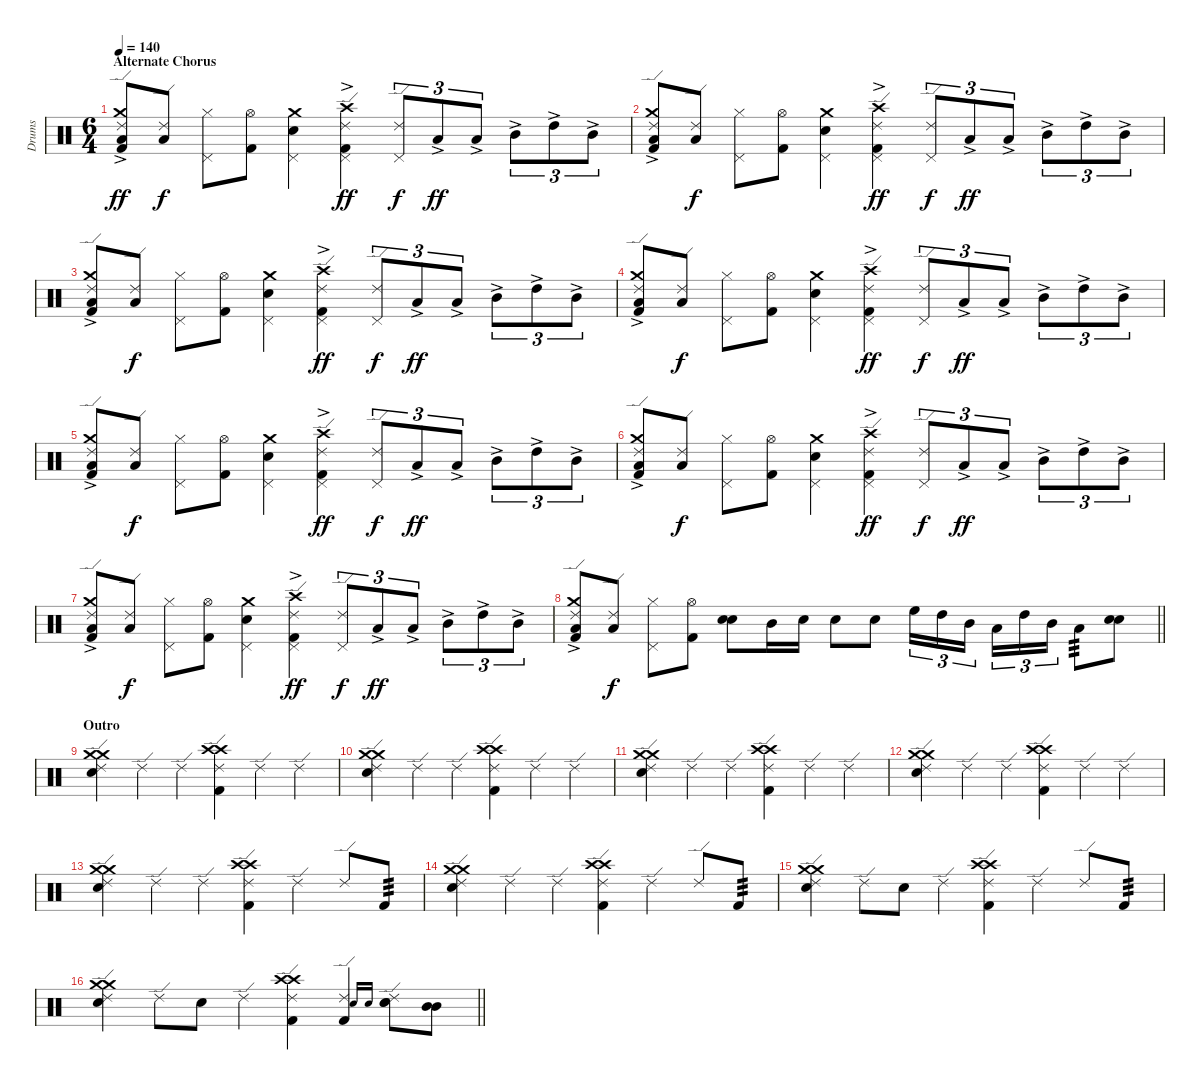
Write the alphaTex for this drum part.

\track ("Drums" "Drums") {instrument percussion}
\staff {score}
\articulation defaults
\ts (6 4)
\section ("" "Alternate Chorus")
\tempo 140
\clef neutral
\ks c
("Ride (edge) 2" "Crash medium (hit)"{ac} "Low Tom (hit)" "Kick (hit) 2").8{dy ff} ("Ride (edge) 2" "Low Tom (hit)").8{dy f} ("Hi-Hat (closed)" "Pedal Hi-Hat (hit)").8 ("Hi-Hat (open)" "Kick (hit) 2").8 ("Crash medium (hit)" "Electric Snare (hit)" "Pedal Hi-Hat (hit)").4 ("Ride (edge) 2" "Crash high (hit)"{ac} "Pedal Hi-Hat (hit)" "Kick (hit) 2").4{dy ff} ("Ride (edge) 2" "Pedal Hi-Hat (hit)").8{tu (3 2) dy f} "Low Tom (hit)"{ac}.8{tu (3 2) dy ff} "Low Tom (hit)"{ac}.8{tu (3 2)} "Mid Tom (hit)"{ac}.8{tu (3 2)} "High Tom (hit)"{ac}.8{tu (3 2)} "Mid Tom (hit)"{ac}.8{tu (3 2)} |
("Ride (edge) 2" "Crash medium (hit)"{ac} "Low Tom (hit)" "Kick (hit) 2").8 ("Ride (edge) 2" "Low Tom (hit)").8{dy f} ("Hi-Hat (closed)" "Pedal Hi-Hat (hit)").8 ("Hi-Hat (open)" "Kick (hit) 2").8 ("Crash medium (hit)" "Electric Snare (hit)" "Pedal Hi-Hat (hit)").4 ("Ride (edge) 2" "Crash high (hit)"{ac} "Pedal Hi-Hat (hit)" "Kick (hit) 2").4{dy ff} ("Ride (edge) 2" "Pedal Hi-Hat (hit)").8{tu (3 2) dy f} "Low Tom (hit)"{ac}.8{tu (3 2) dy ff} "Low Tom (hit)"{ac}.8{tu (3 2)} "Mid Tom (hit)"{ac}.8{tu (3 2)} "High Tom (hit)"{ac}.8{tu (3 2)} "Mid Tom (hit)"{ac}.8{tu (3 2)} |
("Ride (edge) 2" "Crash medium (hit)"{ac} "Low Tom (hit)" "Kick (hit) 2").8 ("Ride (edge) 2" "Low Tom (hit)").8{dy f} ("Hi-Hat (closed)" "Pedal Hi-Hat (hit)").8 ("Hi-Hat (open)" "Kick (hit) 2").8 ("Crash medium (hit)" "Electric Snare (hit)" "Pedal Hi-Hat (hit)").4 ("Ride (edge) 2" "Crash high (hit)"{ac} "Pedal Hi-Hat (hit)" "Kick (hit) 2").4{dy ff} ("Ride (edge) 2" "Pedal Hi-Hat (hit)").8{tu (3 2) dy f} "Low Tom (hit)"{ac}.8{tu (3 2) dy ff} "Low Tom (hit)"{ac}.8{tu (3 2)} "Mid Tom (hit)"{ac}.8{tu (3 2)} "High Tom (hit)"{ac}.8{tu (3 2)} "Mid Tom (hit)"{ac}.8{tu (3 2)} |
("Ride (edge) 2" "Crash medium (hit)"{ac} "Low Tom (hit)" "Kick (hit) 2").8 ("Ride (edge) 2" "Low Tom (hit)").8{dy f} ("Hi-Hat (closed)" "Pedal Hi-Hat (hit)").8 ("Hi-Hat (open)" "Kick (hit) 2").8 ("Crash medium (hit)" "Electric Snare (hit)" "Pedal Hi-Hat (hit)").4 ("Ride (edge) 2" "Crash high (hit)"{ac} "Pedal Hi-Hat (hit)" "Kick (hit) 2").4{dy ff} ("Ride (edge) 2" "Pedal Hi-Hat (hit)").8{tu (3 2) dy f} "Low Tom (hit)"{ac}.8{tu (3 2) dy ff} "Low Tom (hit)"{ac}.8{tu (3 2)} "Mid Tom (hit)"{ac}.8{tu (3 2)} "High Tom (hit)"{ac}.8{tu (3 2)} "Mid Tom (hit)"{ac}.8{tu (3 2)} |
("Ride (edge) 2" "Crash medium (hit)"{ac} "Low Tom (hit)" "Kick (hit) 2").8 ("Ride (edge) 2" "Low Tom (hit)").8{dy f} ("Hi-Hat (closed)" "Pedal Hi-Hat (hit)").8 ("Hi-Hat (open)" "Kick (hit) 2").8 ("Crash medium (hit)" "Electric Snare (hit)" "Pedal Hi-Hat (hit)").4 ("Ride (edge) 2" "Crash high (hit)"{ac} "Pedal Hi-Hat (hit)" "Kick (hit) 2").4{dy ff} ("Ride (edge) 2" "Pedal Hi-Hat (hit)").8{tu (3 2) dy f} "Low Tom (hit)"{ac}.8{tu (3 2) dy ff} "Low Tom (hit)"{ac}.8{tu (3 2)} "Mid Tom (hit)"{ac}.8{tu (3 2)} "High Tom (hit)"{ac}.8{tu (3 2)} "Mid Tom (hit)"{ac}.8{tu (3 2)} |
("Ride (edge) 2" "Crash medium (hit)"{ac} "Low Tom (hit)" "Kick (hit) 2").8 ("Ride (edge) 2" "Low Tom (hit)").8{dy f} ("Hi-Hat (closed)" "Pedal Hi-Hat (hit)").8 ("Hi-Hat (open)" "Kick (hit) 2").8 ("Crash medium (hit)" "Electric Snare (hit)" "Pedal Hi-Hat (hit)").4 ("Ride (edge) 2" "Crash high (hit)"{ac} "Pedal Hi-Hat (hit)" "Kick (hit) 2").4{dy ff} ("Ride (edge) 2" "Pedal Hi-Hat (hit)").8{tu (3 2) dy f} "Low Tom (hit)"{ac}.8{tu (3 2) dy ff} "Low Tom (hit)"{ac}.8{tu (3 2)} "Mid Tom (hit)"{ac}.8{tu (3 2)} "High Tom (hit)"{ac}.8{tu (3 2)} "Mid Tom (hit)"{ac}.8{tu (3 2)} |
("Ride (edge) 2" "Crash medium (hit)"{ac} "Low Tom (hit)" "Kick (hit) 2").8 ("Ride (edge) 2" "Low Tom (hit)").8{dy f} ("Hi-Hat (closed)" "Pedal Hi-Hat (hit)").8 ("Hi-Hat (open)" "Kick (hit) 2").8 ("Crash medium (hit)" "Electric Snare (hit)" "Pedal Hi-Hat (hit)").4 ("Ride (edge) 2" "Crash high (hit)"{ac} "Pedal Hi-Hat (hit)" "Kick (hit) 2").4{dy ff} ("Ride (edge) 2" "Pedal Hi-Hat (hit)").8{tu (3 2) dy f} "Low Tom (hit)"{ac}.8{tu (3 2) dy ff} "Low Tom (hit)"{ac}.8{tu (3 2)} "Mid Tom (hit)"{ac}.8{tu (3 2)} "High Tom (hit)"{ac}.8{tu (3 2)} "Mid Tom (hit)"{ac}.8{tu (3 2)} |
\barLineRight lightlight
("Ride (edge) 2" "Crash medium (hit)"{ac} "Low Tom (hit)" "Kick (hit) 2").8 ("Ride (edge) 2" "Low Tom (hit)").8{dy f} ("Hi-Hat (closed)" "Pedal Hi-Hat (hit)").8 ("Hi-Hat (open)" "Kick (hit) 2").8 ("Electric Snare (hit)" "Electric Snare (hit)").8 "Mid Tom (hit)".16 "Electric Snare (hit)".16 "Electric Snare (hit)".8 "Electric Snare (hit)".8 "High Floor Tom (hit)".16{tu (3 2)} "High Tom (hit)".16{tu (3 2)} "Mid Tom (hit)".16{tu (3 2) beam splitsecondary} "Low Tom (hit)".16{tu (3 2)} "High Tom (hit)".16{tu (3 2)} "Mid Tom (hit)".16{tu (3 2)} "Low Tom (hit)".8{tp 3} ("Electric Snare (hit)" "Electric Snare (hit)").8 |
\section ("" "Outro")
("Ride (edge) 2" "Crash medium (hit)" "Crash medium (hit)" "Electric Snare (hit)").4 "Ride (edge) 2".4 "Ride (edge) 2".4 ("Ride (edge) 2" "Crash high (hit)" "Crash high (hit)" "Kick (hit) 2").4 "Ride (edge) 2".4 "Ride (edge) 2".4 |
("Ride (edge) 2" "Crash medium (hit)" "Crash medium (hit)" "Electric Snare (hit)").4 "Ride (edge) 2".4 "Ride (edge) 2".4 ("Ride (edge) 2" "Crash high (hit)" "Crash high (hit)" "Kick (hit) 2").4 "Ride (edge) 2".4 "Ride (edge) 2".4 |
("Ride (edge) 2" "Crash medium (hit)" "Crash medium (hit)" "Electric Snare (hit)").4 "Ride (edge) 2".4 "Ride (edge) 2".4 ("Ride (edge) 2" "Crash high (hit)" "Crash high (hit)" "Kick (hit) 2").4 "Ride (edge) 2".4 "Ride (edge) 2".4 |
("Ride (edge) 2" "Crash medium (hit)" "Crash medium (hit)" "Electric Snare (hit)").4 "Ride (edge) 2".4 "Ride (edge) 2".4 ("Ride (edge) 2" "Crash high (hit)" "Crash high (hit)" "Kick (hit) 2").4 "Ride (edge) 2".4 "Ride (edge) 2".4 |
("Ride (edge) 2" "Crash medium (hit)" "Crash medium (hit)" "Electric Snare (hit)").4 "Ride (edge) 2".4 "Ride (edge) 2".4 ("Ride (edge) 2" "Crash high (hit)" "Crash high (hit)" "Kick (hit) 2").4 "Ride (edge) 2".4 "Ride (edge) 2".8 "Kick (hit) 2".8{tp 3} |
("Ride (edge) 2" "Crash medium (hit)" "Crash medium (hit)" "Electric Snare (hit)").4 "Ride (edge) 2".4 "Ride (edge) 2".4 ("Ride (edge) 2" "Crash high (hit)" "Crash high (hit)" "Kick (hit) 2").4 "Ride (edge) 2".4 "Ride (edge) 2".8 "Kick (hit) 2".8{tp 3} |
("Ride (edge) 2" "Crash medium (hit)" "Crash medium (hit)" "Electric Snare (hit)").4 "Ride (edge) 2".8 "Electric Snare (hit)".8 "Ride (edge) 2".4 ("Ride (edge) 2" "Crash high (hit)" "Crash high (hit)" "Kick (hit) 2").4 "Ride (edge) 2".4 "Ride (edge) 2".8 "Kick (hit) 2".8{tp 3} |
\barLineRight lightlight
("Ride (edge) 2" "Crash medium (hit)" "Crash medium (hit)" "Electric Snare (hit)").4 "Ride (edge) 2".8 "Electric Snare (hit)".8 "Ride (edge) 2".4 ("Ride (edge) 2" "Crash high (hit)" "Crash high (hit)" "Kick (hit) 2").4 ("Ride (edge) 2" "Kick (hit) 2").4 "Electric Snare (hit)".16{gr onbeat} "Electric Snare (hit)".16{gr onbeat} ("Ride (edge) 2" "Electric Snare (hit)" "Electric Snare (hit)").8 ("Mid Tom (hit)" "Mid Tom (hit)").8
